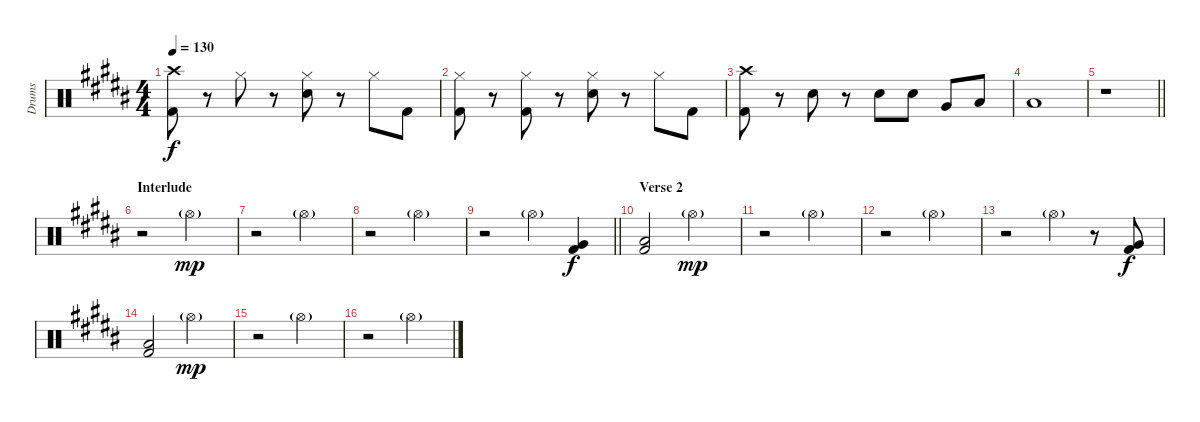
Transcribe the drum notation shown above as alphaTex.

\track ("Drums" "Drums") {instrument percussion}
\staff {score}
\articulation defaults
\ts (4 4)
\tempo 130
\clef neutral
\ks b
("Crash high (hit)" "Kick (hit) 2").8{dy f} r.8 "Hi-Hat (closed)".8 r.8 ("Hi-Hat (closed)" "Electric Snare (hit)").8 r.8 "Hi-Hat (closed)".8 "Kick (hit) 2".8 |
("Hi-Hat (closed)" "Kick (hit) 2").8 r.8 ("Hi-Hat (closed)" "Kick (hit) 2").8 r.8 ("Hi-Hat (closed)" "Electric Snare (hit)").8 r.8 "Hi-Hat (closed)".8 "Kick (hit) 2".8 |
("Crash high (hit)" "Kick (hit) 2").8 r.8 "Electric Snare (hit)".8 r.8 "Electric Snare (hit)".8 "Electric Snare (hit)".8 "Very Low Tom (hit)".8 "Low Floor Tom (hit)".8 |
"Low Floor Tom (hit)".1 |
\barLineRight lightlight
r.1 |
\section ("" "Interlude")
r.2 "Hi-Hat (open)"{g}.2{dy mp} |
r.2 "Hi-Hat (open)"{g}.2 |
r.2 "Hi-Hat (open)"{g}.2 |
\barLineRight lightlight
r.2 "Hi-Hat (open)"{g}.4 ("Very Low Tom (hit)" "Kick (hit) 2").4{dy f} |
\section ("" "Verse 2")
("Low Floor Tom (hit)" "Kick (hit) 2").2 "Hi-Hat (open)"{g}.2{dy mp} |
r.2 "Hi-Hat (open)"{g}.2 |
r.2 "Hi-Hat (open)"{g}.2 |
r.2 "Hi-Hat (open)"{g}.4 r.8 ("Very Low Tom (hit)" "Kick (hit) 2").8{dy f} |
("Low Floor Tom (hit)" "Kick (hit) 2").2 "Hi-Hat (open)"{g}.2{dy mp} |
r.2 "Hi-Hat (open)"{g}.2 |
r.2 "Hi-Hat (open)"{g}.2
